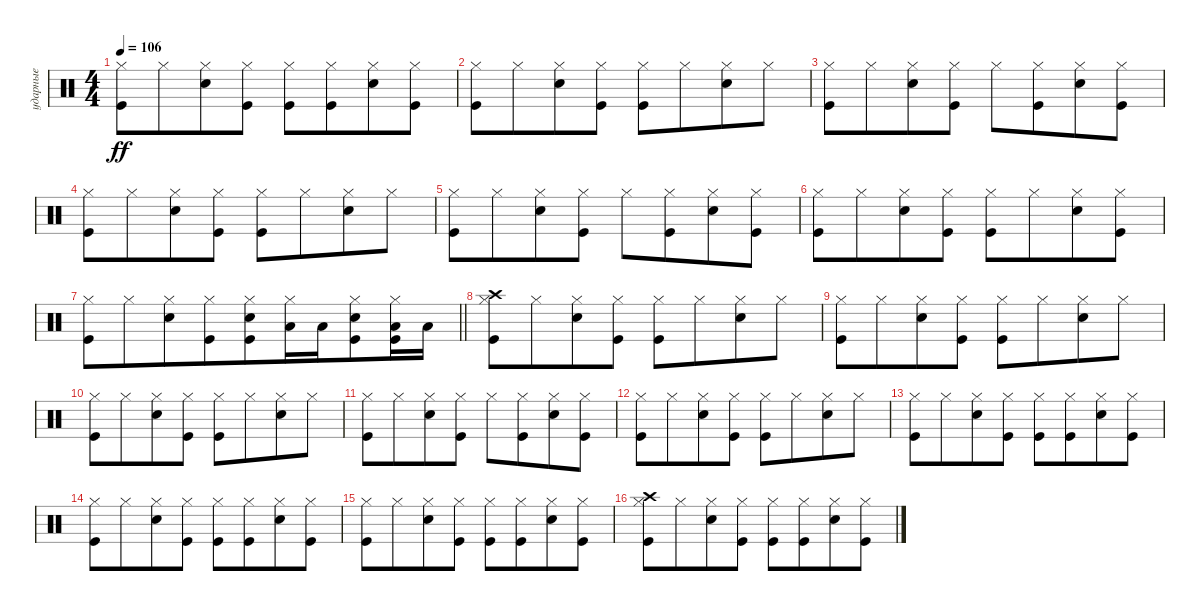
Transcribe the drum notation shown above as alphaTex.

\track ("ударные" "ударные") {instrument percussion}
\staff {score}
\articulation defaults
\ts (4 4)
\tempo 106
\clef neutral
\ks aminor
("Hi-Hat (closed)" "Kick (hit)").8{dy ff} "Hi-Hat (closed)".8{beam merge} ("Hi-Hat (closed)" "Snare (hit) 2").8 ("Hi-Hat (closed)" "Kick (hit)").8 ("Hi-Hat (closed)" "Kick (hit)").8 ("Hi-Hat (closed)" "Kick (hit)").8{beam merge} ("Hi-Hat (closed)" "Snare (hit) 2").8 ("Hi-Hat (closed)" "Kick (hit)").8 |
("Hi-Hat (closed)" "Kick (hit)").8 "Hi-Hat (closed)".8{beam merge} ("Hi-Hat (closed)" "Snare (hit) 2").8 ("Hi-Hat (closed)" "Kick (hit)").8 ("Hi-Hat (closed)" "Kick (hit)").8 "Hi-Hat (closed)".8{beam merge} ("Hi-Hat (closed)" "Snare (hit) 2").8 "Hi-Hat (closed)".8 |
("Hi-Hat (closed)" "Kick (hit)").8 "Hi-Hat (closed)".8{beam merge} ("Hi-Hat (closed)" "Snare (hit) 2").8 ("Hi-Hat (closed)" "Kick (hit)").8 "Hi-Hat (closed)".8 ("Hi-Hat (closed)" "Kick (hit)").8{beam merge} ("Hi-Hat (closed)" "Snare (hit) 2").8 ("Hi-Hat (closed)" "Kick (hit)").8 |
("Hi-Hat (closed)" "Kick (hit)").8 "Hi-Hat (closed)".8{beam merge} ("Hi-Hat (closed)" "Snare (hit) 2").8 ("Hi-Hat (closed)" "Kick (hit)").8 ("Hi-Hat (closed)" "Kick (hit)").8 "Hi-Hat (closed)".8{beam merge} ("Hi-Hat (closed)" "Snare (hit) 2").8 "Hi-Hat (closed)".8 |
("Hi-Hat (closed)" "Kick (hit)").8 "Hi-Hat (closed)".8{beam merge} ("Hi-Hat (closed)" "Snare (hit) 2").8 ("Hi-Hat (closed)" "Kick (hit)").8 "Hi-Hat (closed)".8 ("Hi-Hat (closed)" "Kick (hit)").8{beam merge} ("Hi-Hat (closed)" "Snare (hit) 2").8 ("Hi-Hat (closed)" "Kick (hit)").8 |
("Hi-Hat (closed)" "Kick (hit)").8 "Hi-Hat (closed)".8{beam merge} ("Hi-Hat (closed)" "Snare (hit) 2").8 ("Hi-Hat (closed)" "Kick (hit)").8 ("Hi-Hat (closed)" "Kick (hit)").8 "Hi-Hat (closed)".8{beam merge} ("Hi-Hat (closed)" "Snare (hit) 2").8 ("Hi-Hat (closed)" "Kick (hit)").8 |
\barLineRight lightlight
("Hi-Hat (closed)" "Kick (hit)").8 "Hi-Hat (closed)".8{beam merge} ("Hi-Hat (closed)" "Snare (hit) 2").8 ("Hi-Hat (closed)" "Kick (hit)").8{beam merge} ("Hi-Hat (closed)" "Snare (hit) 2" "Kick (hit)").8{beam merge} ("Hi-Hat (closed)" "Low Tom (hit)").16{beam merge} "Low Tom (hit)".16{beam merge} ("Hi-Hat (closed)" "Snare (hit) 2" "Kick (hit)").8 ("Hi-Hat (closed)" "Low Tom (hit)" "Kick (hit)").16 "Low Tom (hit)".16 |
\section ("" "")
("Hi-Hat (closed)" "Crash high (hit)" "Kick (hit)").8 "Hi-Hat (closed)".8{beam merge} ("Hi-Hat (closed)" "Snare (hit) 2").8 ("Hi-Hat (closed)" "Kick (hit)").8 ("Hi-Hat (closed)" "Kick (hit)").8 "Hi-Hat (closed)".8{beam merge} ("Hi-Hat (closed)" "Snare (hit) 2").8 "Hi-Hat (closed)".8 |
("Hi-Hat (closed)" "Kick (hit)").8 "Hi-Hat (closed)".8{beam merge} ("Hi-Hat (closed)" "Snare (hit) 2").8 ("Hi-Hat (closed)" "Kick (hit)").8 ("Hi-Hat (closed)" "Kick (hit)").8 "Hi-Hat (closed)".8{beam merge} ("Hi-Hat (closed)" "Snare (hit) 2").8 "Hi-Hat (closed)".8 |
("Hi-Hat (closed)" "Kick (hit)").8 "Hi-Hat (closed)".8{beam merge} ("Hi-Hat (closed)" "Snare (hit) 2").8 ("Hi-Hat (closed)" "Kick (hit)").8 ("Hi-Hat (closed)" "Kick (hit)").8 "Hi-Hat (closed)".8{beam merge} ("Hi-Hat (closed)" "Snare (hit) 2").8 "Hi-Hat (closed)".8 |
("Hi-Hat (closed)" "Kick (hit)").8 "Hi-Hat (closed)".8{beam merge} ("Hi-Hat (closed)" "Snare (hit) 2").8 ("Hi-Hat (closed)" "Kick (hit)").8 "Hi-Hat (closed)".8 ("Hi-Hat (closed)" "Kick (hit)").8{beam merge} ("Hi-Hat (closed)" "Snare (hit) 2").8 ("Hi-Hat (closed)" "Kick (hit)").8 |
("Hi-Hat (closed)" "Kick (hit)").8 "Hi-Hat (closed)".8{beam merge} ("Hi-Hat (closed)" "Snare (hit) 2").8 ("Hi-Hat (closed)" "Kick (hit)").8 ("Hi-Hat (closed)" "Kick (hit)").8 "Hi-Hat (closed)".8{beam merge} ("Hi-Hat (closed)" "Snare (hit) 2").8 "Hi-Hat (closed)".8 |
("Hi-Hat (closed)" "Kick (hit)").8 "Hi-Hat (closed)".8{beam merge} ("Hi-Hat (closed)" "Snare (hit) 2").8 ("Hi-Hat (closed)" "Kick (hit)").8 ("Hi-Hat (closed)" "Kick (hit)").8 ("Hi-Hat (closed)" "Kick (hit)").8{beam merge} ("Hi-Hat (closed)" "Snare (hit) 2").8 ("Hi-Hat (closed)" "Kick (hit)").8 |
("Hi-Hat (closed)" "Kick (hit)").8 "Hi-Hat (closed)".8{beam merge} ("Hi-Hat (closed)" "Snare (hit) 2").8 ("Hi-Hat (closed)" "Kick (hit)").8 ("Hi-Hat (closed)" "Kick (hit)").8 ("Hi-Hat (closed)" "Kick (hit)").8{beam merge} ("Hi-Hat (closed)" "Snare (hit) 2").8 ("Hi-Hat (closed)" "Kick (hit)").8 |
("Hi-Hat (closed)" "Kick (hit)").8 "Hi-Hat (closed)".8{beam merge} ("Hi-Hat (closed)" "Snare (hit) 2").8 ("Hi-Hat (closed)" "Kick (hit)").8 ("Hi-Hat (closed)" "Kick (hit)").8 ("Hi-Hat (closed)" "Kick (hit)").8{beam merge} ("Hi-Hat (closed)" "Snare (hit) 2").8 ("Hi-Hat (closed)" "Kick (hit)").8 |
("Hi-Hat (closed)" "Crash high (hit)" "Kick (hit)").8 "Hi-Hat (closed)".8{beam merge} ("Hi-Hat (closed)" "Snare (hit) 2").8 ("Hi-Hat (closed)" "Kick (hit)").8 ("Hi-Hat (closed)" "Kick (hit)").8 ("Hi-Hat (closed)" "Kick (hit)").8{beam merge} ("Hi-Hat (closed)" "Snare (hit) 2").8 ("Hi-Hat (closed)" "Kick (hit)").8
